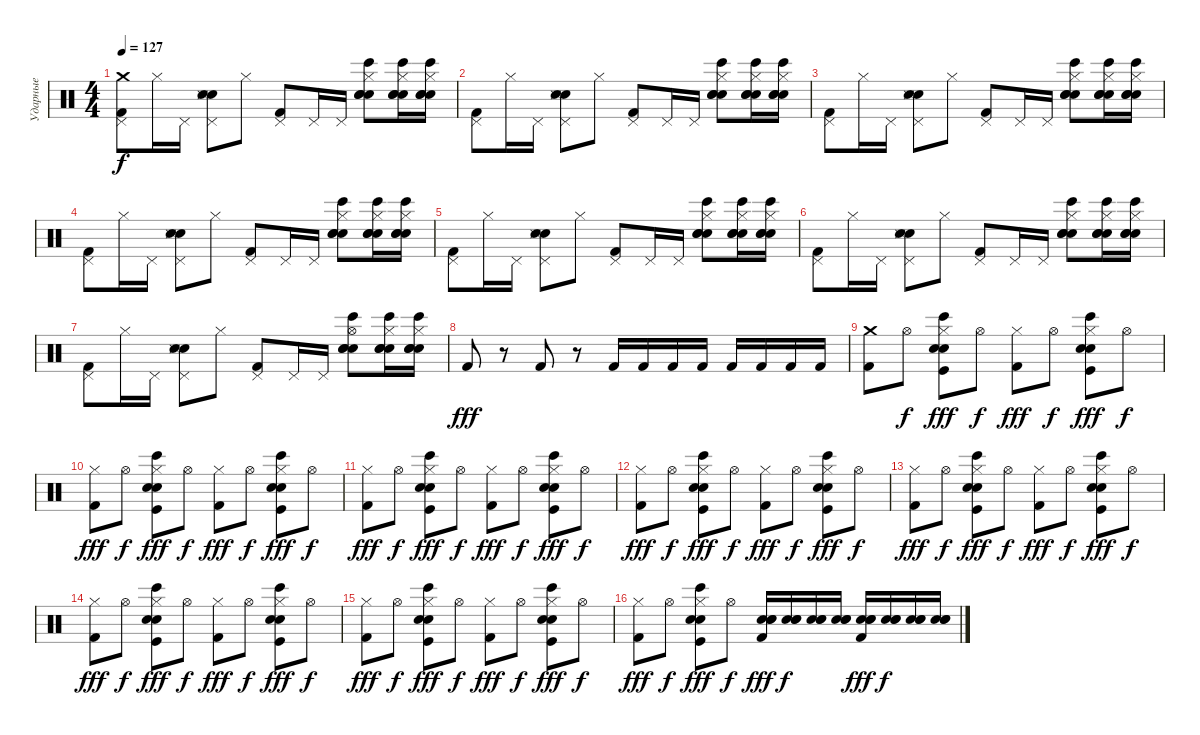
\track ("Ударные" "Ударные") {instrument percussion}
\staff {score}
\articulation defaults
\ts (4 4)
\tempo 127
\clef neutral
\ks c
("Kick (hit) 2" "Pedal Hi-Hat (hit)" "Crash medium (hit)").8{dy f} "Hi-Hat (closed)".16 "Pedal Hi-Hat (hit)".16 ("Pedal Hi-Hat (hit)" "Electric Snare (hit)" "Hand Clap (hit)" "Snare (side stick) 3").8 "Hi-Hat (closed)".8 ("Kick (hit) 2" "Pedal Hi-Hat (hit)").8 "Pedal Hi-Hat (hit)".16 "Pedal Hi-Hat (hit)".16 ("Hi-Hat (closed)" "Hand Clap (hit)" "Hand Clap (hit)" "Snare (hit) 2" "Bongo High (hit)").8 ("Hi-Hat (closed)" "Hand Clap (hit)" "Hand Clap (hit)" "Snare (hit) 2" "Bongo High (hit)").16 ("Hi-Hat (closed)" "Hand Clap (hit)" "Hand Clap (hit)" "Snare (hit) 2" "Bongo High (hit)").16 |
("Kick (hit) 2" "Pedal Hi-Hat (hit)").8 "Hi-Hat (closed)".16 "Pedal Hi-Hat (hit)".16 ("Pedal Hi-Hat (hit)" "Electric Snare (hit)" "Hand Clap (hit)" "Snare (side stick) 3").8 "Hi-Hat (closed)".8 ("Kick (hit) 2" "Pedal Hi-Hat (hit)").8 "Pedal Hi-Hat (hit)".16 "Pedal Hi-Hat (hit)".16 ("Hi-Hat (closed)" "Hand Clap (hit)" "Hand Clap (hit)" "Snare (hit) 2" "Bongo High (hit)").8 ("Hi-Hat (closed)" "Hand Clap (hit)" "Hand Clap (hit)" "Snare (hit) 2" "Bongo High (hit)").16 ("Hi-Hat (closed)" "Hand Clap (hit)" "Hand Clap (hit)" "Snare (hit) 2" "Bongo High (hit)").16 |
("Kick (hit) 2" "Pedal Hi-Hat (hit)").8 "Hi-Hat (closed)".16 "Pedal Hi-Hat (hit)".16 ("Pedal Hi-Hat (hit)" "Electric Snare (hit)" "Hand Clap (hit)" "Snare (side stick) 3").8 "Hi-Hat (closed)".8 ("Kick (hit) 2" "Pedal Hi-Hat (hit)").8 "Pedal Hi-Hat (hit)".16 "Pedal Hi-Hat (hit)".16 ("Hi-Hat (closed)" "Hand Clap (hit)" "Hand Clap (hit)" "Snare (hit) 2" "Bongo High (hit)").8 ("Hi-Hat (closed)" "Hand Clap (hit)" "Hand Clap (hit)" "Snare (hit) 2" "Bongo High (hit)").16 ("Hi-Hat (closed)" "Hand Clap (hit)" "Hand Clap (hit)" "Snare (hit) 2" "Bongo High (hit)").16 |
("Kick (hit) 2" "Pedal Hi-Hat (hit)").8 "Hi-Hat (closed)".16 "Pedal Hi-Hat (hit)".16 ("Pedal Hi-Hat (hit)" "Electric Snare (hit)" "Hand Clap (hit)" "Snare (side stick) 3").8 "Hi-Hat (closed)".8 ("Kick (hit) 2" "Pedal Hi-Hat (hit)").8 "Pedal Hi-Hat (hit)".16 "Pedal Hi-Hat (hit)".16 ("Hi-Hat (closed)" "Hand Clap (hit)" "Hand Clap (hit)" "Snare (hit) 2" "Bongo High (hit)").8 ("Hi-Hat (closed)" "Hand Clap (hit)" "Hand Clap (hit)" "Snare (hit) 2" "Bongo High (hit)").16 ("Hi-Hat (closed)" "Hand Clap (hit)" "Hand Clap (hit)" "Snare (hit) 2" "Bongo High (hit)").16 |
("Kick (hit) 2" "Pedal Hi-Hat (hit)").8 "Hi-Hat (closed)".16 "Pedal Hi-Hat (hit)".16 ("Pedal Hi-Hat (hit)" "Electric Snare (hit)" "Hand Clap (hit)" "Snare (side stick) 3").8 "Hi-Hat (closed)".8 ("Kick (hit) 2" "Pedal Hi-Hat (hit)").8 "Pedal Hi-Hat (hit)".16 "Pedal Hi-Hat (hit)".16 ("Hi-Hat (closed)" "Hand Clap (hit)" "Hand Clap (hit)" "Snare (hit) 2" "Bongo High (hit)").8 ("Hi-Hat (closed)" "Hand Clap (hit)" "Hand Clap (hit)" "Snare (hit) 2" "Bongo High (hit)").16 ("Hi-Hat (closed)" "Hand Clap (hit)" "Hand Clap (hit)" "Snare (hit) 2" "Bongo High (hit)").16 |
("Kick (hit) 2" "Pedal Hi-Hat (hit)").8 "Hi-Hat (closed)".16 "Pedal Hi-Hat (hit)".16 ("Pedal Hi-Hat (hit)" "Electric Snare (hit)" "Hand Clap (hit)" "Snare (side stick) 3").8 "Hi-Hat (closed)".8 ("Kick (hit) 2" "Pedal Hi-Hat (hit)").8 "Pedal Hi-Hat (hit)".16 "Pedal Hi-Hat (hit)".16 ("Hi-Hat (closed)" "Hand Clap (hit)" "Hand Clap (hit)" "Snare (hit) 2" "Bongo High (hit)").8 ("Hi-Hat (closed)" "Hand Clap (hit)" "Hand Clap (hit)" "Snare (hit) 2" "Bongo High (hit)").16 ("Hi-Hat (closed)" "Hand Clap (hit)" "Hand Clap (hit)" "Snare (hit) 2" "Bongo High (hit)").16 |
("Kick (hit) 2" "Pedal Hi-Hat (hit)").8 "Hi-Hat (closed)".16 "Pedal Hi-Hat (hit)".16 ("Pedal Hi-Hat (hit)" "Electric Snare (hit)" "Hand Clap (hit)" "Snare (side stick) 3").8 "Hi-Hat (closed)".8 ("Kick (hit) 2" "Pedal Hi-Hat (hit)").8 "Pedal Hi-Hat (hit)".16 "Pedal Hi-Hat (hit)".16 ("Hi-Hat (open)" "Hand Clap (hit)" "Hand Clap (hit)" "Snare (hit) 2" "Bongo High (hit)").8 ("Hi-Hat (closed)" "Hand Clap (hit)" "Hand Clap (hit)" "Snare (hit) 2" "Bongo High (hit)").16 ("Hi-Hat (closed)" "Hand Clap (hit)" "Hand Clap (hit)" "Snare (hit) 2" "Bongo High (hit)").16 |
"Kick (hit) 2".8{dy fff} r.8 "Kick (hit) 2".8 r.8 "Kick (hit) 2".16 "Kick (hit) 2".16 "Kick (hit) 2".16 "Kick (hit) 2".16 "Kick (hit) 2".16 "Kick (hit) 2".16 "Kick (hit) 2".16 "Kick (hit) 2".16 |
("Kick (hit) 2" "Crash medium (hit)").8 "Hi-Hat (open)".8{dy f} ("Hi-Hat (closed)" "Hand Clap (hit)" "Kick (hit)" "Snare (hit) 2" "Bongo High (hit)").8{dy fff} "Hi-Hat (open)".8{dy f} ("Kick (hit) 2" "Hi-Hat (closed)").8{dy fff} "Hi-Hat (open)".8{dy f} ("Hi-Hat (closed)" "Hand Clap (hit)" "Kick (hit)" "Snare (hit) 2" "Bongo High (hit)").8{dy fff} "Hi-Hat (open)".8{dy f} |
("Kick (hit) 2" "Hi-Hat (closed)").8{dy fff} "Hi-Hat (open)".8{dy f} ("Hi-Hat (closed)" "Hand Clap (hit)" "Kick (hit)" "Snare (hit) 2" "Bongo High (hit)").8{dy fff} "Hi-Hat (open)".8{dy f} ("Kick (hit) 2" "Hi-Hat (closed)").8{dy fff} "Hi-Hat (open)".8{dy f} ("Hi-Hat (closed)" "Hand Clap (hit)" "Kick (hit)" "Snare (hit) 2" "Bongo High (hit)").8{dy fff} "Hi-Hat (open)".8{dy f} |
("Kick (hit) 2" "Hi-Hat (closed)").8{dy fff} "Hi-Hat (open)".8{dy f} ("Hi-Hat (closed)" "Hand Clap (hit)" "Kick (hit)" "Snare (hit) 2" "Bongo High (hit)").8{dy fff} "Hi-Hat (open)".8{dy f} ("Kick (hit) 2" "Hi-Hat (closed)").8{dy fff} "Hi-Hat (open)".8{dy f} ("Hi-Hat (closed)" "Hand Clap (hit)" "Kick (hit)" "Snare (hit) 2" "Bongo High (hit)").8{dy fff} "Hi-Hat (open)".8{dy f} |
("Kick (hit) 2" "Hi-Hat (closed)").8{dy fff} "Hi-Hat (open)".8{dy f} ("Hi-Hat (closed)" "Hand Clap (hit)" "Kick (hit)" "Snare (hit) 2" "Bongo High (hit)").8{dy fff} "Hi-Hat (open)".8{dy f} ("Kick (hit) 2" "Hi-Hat (closed)").8{dy fff} "Hi-Hat (open)".8{dy f} ("Hi-Hat (closed)" "Hand Clap (hit)" "Kick (hit)" "Snare (hit) 2" "Bongo High (hit)").8{dy fff} "Hi-Hat (open)".8{dy f} |
("Kick (hit) 2" "Hi-Hat (closed)").8{dy fff} "Hi-Hat (open)".8{dy f} ("Hi-Hat (closed)" "Hand Clap (hit)" "Kick (hit)" "Snare (hit) 2" "Bongo High (hit)").8{dy fff} "Hi-Hat (open)".8{dy f} ("Kick (hit) 2" "Hi-Hat (closed)").8{dy fff} "Hi-Hat (open)".8{dy f} ("Hi-Hat (closed)" "Hand Clap (hit)" "Kick (hit)" "Snare (hit) 2" "Bongo High (hit)").8{dy fff} "Hi-Hat (open)".8{dy f} |
("Kick (hit) 2" "Hi-Hat (closed)").8{dy fff} "Hi-Hat (open)".8{dy f} ("Hi-Hat (closed)" "Hand Clap (hit)" "Kick (hit)" "Snare (hit) 2" "Bongo High (hit)").8{dy fff} "Hi-Hat (open)".8{dy f} ("Kick (hit) 2" "Hi-Hat (closed)").8{dy fff} "Hi-Hat (open)".8{dy f} ("Hi-Hat (closed)" "Hand Clap (hit)" "Kick (hit)" "Snare (hit) 2" "Bongo High (hit)").8{dy fff} "Hi-Hat (open)".8{dy f} |
("Kick (hit) 2" "Hi-Hat (closed)").8{dy fff} "Hi-Hat (open)".8{dy f} ("Hi-Hat (closed)" "Hand Clap (hit)" "Kick (hit)" "Snare (hit) 2" "Bongo High (hit)").8{dy fff} "Hi-Hat (open)".8{dy f} ("Kick (hit) 2" "Hi-Hat (closed)").8{dy fff} "Hi-Hat (open)".8{dy f} ("Hi-Hat (closed)" "Hand Clap (hit)" "Kick (hit)" "Snare (hit) 2" "Bongo High (hit)").8{dy fff} "Hi-Hat (open)".8{dy f} |
("Kick (hit) 2" "Hi-Hat (closed)").8{dy fff} "Hi-Hat (open)".8{dy f} ("Hi-Hat (closed)" "Hand Clap (hit)" "Kick (hit)" "Snare (hit) 2" "Bongo High (hit)").8{dy fff} "Hi-Hat (open)".8{dy f} ("Hand Clap (hit)" "Hand Clap (hit)" "Snare (hit) 2" "Kick (hit) 2").16{dy fff} ("Hand Clap (hit)" "Hand Clap (hit)" "Snare (hit) 2").16{dy f} ("Hand Clap (hit)" "Hand Clap (hit)" "Snare (hit) 2").16 ("Hand Clap (hit)" "Hand Clap (hit)" "Snare (hit) 2").16 ("Hand Clap (hit)" "Hand Clap (hit)" "Snare (hit) 2" "Kick (hit) 2").16{dy fff} ("Hand Clap (hit)" "Hand Clap (hit)" "Snare (hit) 2").16{dy f} ("Hand Clap (hit)" "Hand Clap (hit)" "Snare (hit) 2").16 ("Hand Clap (hit)" "Hand Clap (hit)" "Snare (hit) 2").16
